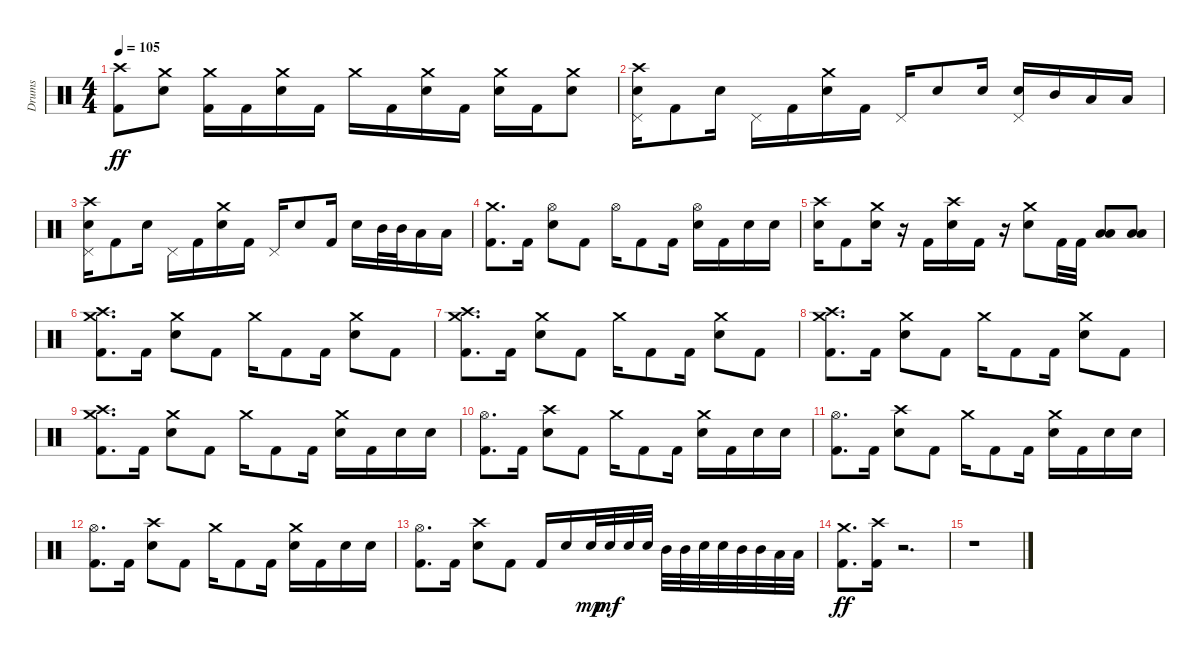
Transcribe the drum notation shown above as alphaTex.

\track ("Drums" "Drums") {instrument percussion}
\staff {score}
\articulation defaults
\ts (4 4)
\tempo 105
\clef neutral
\ks c
("Crash high (hit)" "Kick (hit) 2").8{dy ff} ("Crash medium (hit)" "Electric Snare (hit)").8 ("Crash medium (hit)" "Kick (hit) 2").16 "Kick (hit) 2".16 ("Crash medium (hit)" "Electric Snare (hit)").16 "Kick (hit) 2".16 "Crash medium (hit)".16 "Kick (hit) 2".16 ("Crash medium (hit)" "Electric Snare (hit)").16 "Kick (hit) 2".16 ("Crash medium (hit)" "Electric Snare (hit)").16 "Kick (hit) 2".16 ("Crash medium (hit)" "Electric Snare (hit)").8 |
("Crash high (hit)" "Pedal Hi-Hat (hit)" "Electric Snare (hit)").16 "Kick (hit) 2".8 "Electric Snare (hit)".16 "Pedal Hi-Hat (hit)".16 "Kick (hit) 2".16 ("Crash medium (hit)" "Electric Snare (hit)").16 "Kick (hit) 2".16 "Pedal Hi-Hat (hit)".16 "Electric Snare (hit)".8 "Electric Snare (hit)".16 ("Pedal Hi-Hat (hit)" "Electric Snare (hit)").16 "Mid Tom (hit)".16 "Low Tom (hit)".16 "Low Tom (hit)".16 |
("Crash high (hit)" "Pedal Hi-Hat (hit)" "Electric Snare (hit)").16 "Kick (hit) 2".8 "Electric Snare (hit)".16 "Pedal Hi-Hat (hit)".16 "Kick (hit) 2".16 ("Crash medium (hit)" "Electric Snare (hit)").16 "Kick (hit) 2".16 "Pedal Hi-Hat (hit)".16 "Electric Snare (hit)".8 "Kick (hit) 2".16 "Electric Snare (hit)".16 "Mid Tom (hit)".32 "Mid Tom (hit)".32 "Low Tom (hit)".16 "Low Tom (hit)".16 |
("Crash medium (hit)" "Kick (hit) 2").8{d} "Kick (hit) 2".16 ("Hi-Hat (open)" "Electric Snare (hit)").8 "Kick (hit) 2".8 "Hi-Hat (open)".16 "Kick (hit) 2".8 "Kick (hit) 2".16 ("Hi-Hat (open)" "Electric Snare (hit)").16 "Kick (hit) 2".16 "Electric Snare (hit)".16 "Electric Snare (hit)".16 |
("Crash high (hit)" "Electric Snare (hit)").16 "Kick (hit) 2".8 ("Crash medium (hit)" "Electric Snare (hit)").16 r.16 "Kick (hit) 2".16 ("Crash high (hit)" "Electric Snare (hit)").16 "Kick (hit) 2".16 r.16 ("Crash medium (hit)" "Electric Snare (hit)").8 "Kick (hit) 2".32 "Kick (hit) 2".32 ("Low Floor Tom (hit)" "Low Floor Tom (hit)").8{bd 240} ("Low Floor Tom (hit)" "Low Floor Tom (hit)").8{bd 240} |
("Crash medium (hit)" "Crash high (hit)" "Kick (hit) 2").8{d} "Kick (hit) 2".16 ("Crash medium (hit)" "Electric Snare (hit)").8 "Kick (hit) 2".8 "Crash medium (hit)".16 "Kick (hit) 2".8 "Kick (hit) 2".16 ("Crash medium (hit)" "Electric Snare (hit)").8 "Kick (hit) 2".8 |
("Crash medium (hit)" "Crash high (hit)" "Kick (hit) 2").8{d} "Kick (hit) 2".16 ("Crash medium (hit)" "Electric Snare (hit)").8 "Kick (hit) 2".8 "Crash medium (hit)".16 "Kick (hit) 2".8 "Kick (hit) 2".16 ("Crash medium (hit)" "Electric Snare (hit)").8 "Kick (hit) 2".8 |
("Crash medium (hit)" "Crash high (hit)" "Kick (hit) 2").8{d} "Kick (hit) 2".16 ("Crash medium (hit)" "Electric Snare (hit)").8 "Kick (hit) 2".8 "Crash medium (hit)".16 "Kick (hit) 2".8 "Kick (hit) 2".16 ("Crash medium (hit)" "Electric Snare (hit)").8 "Kick (hit) 2".8 |
("Crash medium (hit)" "Crash high (hit)" "Kick (hit) 2").8{d} "Kick (hit) 2".16 ("Crash medium (hit)" "Electric Snare (hit)").8 "Kick (hit) 2".8 "Crash medium (hit)".16 "Kick (hit) 2".8 "Kick (hit) 2".16 ("Crash medium (hit)" "Electric Snare (hit)").16 "Kick (hit) 2".16 "Electric Snare (hit)".16 "Electric Snare (hit)".16 |
("Hi-Hat (open)" "Kick (hit) 2").8{d} "Kick (hit) 2".16 ("Crash high (hit)" "Electric Snare (hit)").8 "Kick (hit) 2".8 "Crash medium (hit)".16 "Kick (hit) 2".8 "Kick (hit) 2".16 ("Crash medium (hit)" "Electric Snare (hit)").16 "Kick (hit) 2".16 "Electric Snare (hit)".16 "Electric Snare (hit)".16 |
("Hi-Hat (open)" "Kick (hit) 2").8{d} "Kick (hit) 2".16 ("Crash high (hit)" "Electric Snare (hit)").8 "Kick (hit) 2".8 "Crash medium (hit)".16 "Kick (hit) 2".8 "Kick (hit) 2".16 ("Crash medium (hit)" "Electric Snare (hit)").16 "Kick (hit) 2".16 "Electric Snare (hit)".16 "Electric Snare (hit)".16 |
("Hi-Hat (open)" "Kick (hit) 2").8{d} "Kick (hit) 2".16 ("Crash high (hit)" "Electric Snare (hit)").8 "Kick (hit) 2".8 "Crash medium (hit)".16 "Kick (hit) 2".8 "Kick (hit) 2".16 ("Crash medium (hit)" "Electric Snare (hit)").16 "Kick (hit) 2".16 "Electric Snare (hit)".16 "Electric Snare (hit)".16 |
("Hi-Hat (open)" "Kick (hit) 2").8{d} "Kick (hit) 2".16 ("Crash high (hit)" "Electric Snare (hit)").8 "Kick (hit) 2".8 "Kick (hit) 2".16 "Electric Snare (hit)".16 "Electric Snare (hit)".32{dy mp} "Electric Snare (hit)".32{dy mf} "Electric Snare (hit)".32 "Electric Snare (hit)".32 "Mid Tom (hit)".32 "Mid Tom (hit)".32 "Electric Snare (hit)".32 "Electric Snare (hit)".32 "Mid Tom (hit)".32 "Mid Tom (hit)".32 "Low Tom (hit)".32 "Low Tom (hit)".32 |
("Crash medium (hit)" "Kick (hit) 2").8{d dy ff} ("Crash high (hit)" "Kick (hit) 2").16 r.2{d} |
r.1
